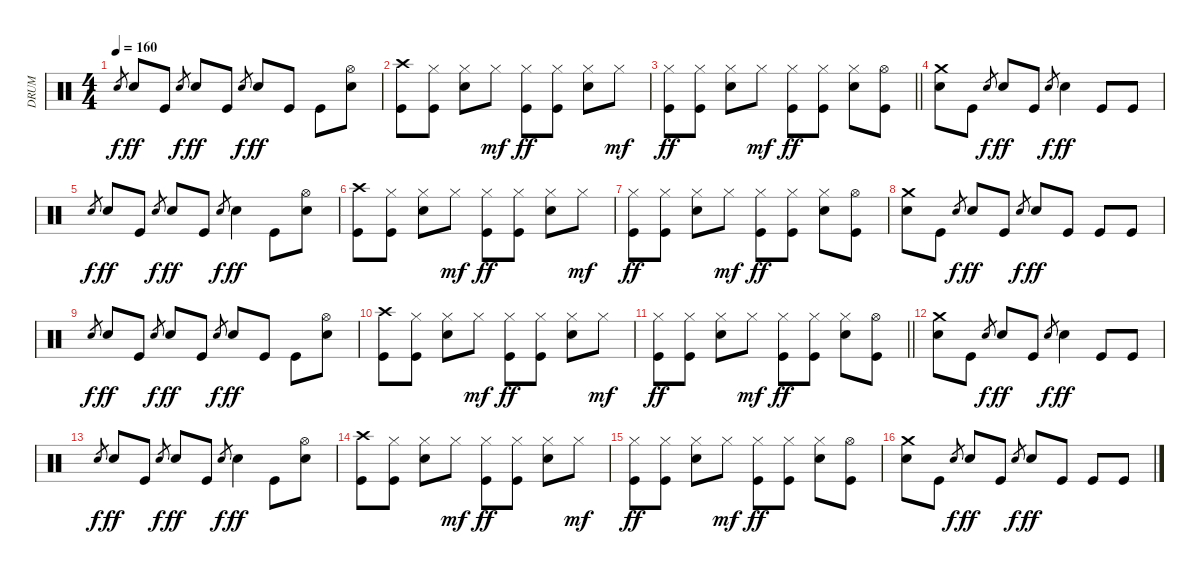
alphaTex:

\track ("DRUM" "DRUM") {instrument percussion}
\staff {score}
\articulation defaults
\ts (4 4)
\tempo 160
\clef neutral
\ks c "Electric Snare (hit)".8{gr dy f} "Electric Snare (hit)".8{dy ff} "Kick (hit)".8 "Electric Snare (hit)".8{gr dy f} "Electric Snare (hit)".8{dy ff} "Kick (hit)".8 "Electric Snare (hit)".8{gr dy f} "Electric Snare (hit)".8{dy ff} "Kick (hit)".8 "Kick (hit)".8
("Hi-Hat (open)" "Electric Snare (hit)").8 |
("Crash high (hit)" "Kick (hit)").8 ("Hi-Hat (closed)" "Kick (hit)").8 ("Hi-Hat (closed)" "Electric Snare (hit)").8 "Hi-Hat (closed)".8{dy mf} ("Hi-Hat (closed)" "Kick (hit)").8{dy ff} ("Hi-Hat (closed)" "Kick (hit)").8 ("Hi-Hat (closed)" "Electric Snare (hit)").8 "Hi-Hat (closed)".8{dy mf} |
\barLineRight lightlight
("Hi-Hat (closed)" "Kick (hit)").8{dy ff} ("Hi-Hat (closed)" "Kick (hit)").8 ("Hi-Hat (closed)" "Electric Snare (hit)").8 "Hi-Hat (closed)".8{dy mf} ("Hi-Hat (closed)" "Kick (hit)").8{dy ff} ("Hi-Hat (closed)" "Kick (hit)").8 ("Hi-Hat (closed)" "Electric Snare (hit)").8 ("Hi-Hat (open)" "Kick (hit)").8 |
("Crash medium (hit)" "Electric Snare (hit)").8 "Kick (hit)".8 "Electric Snare (hit)".8{gr dy f} "Electric Snare (hit)".8{dy ff} "Kick (hit)".8 "Electric Snare (hit)".8{gr dy f} "Electric Snare (hit)".4{dy ff} "Kick (hit)".8 "Kick (hit)".8 |
"Electric Snare (hit)".8{gr dy f} "Electric Snare (hit)".8{dy ff} "Kick (hit)".8 "Electric Snare (hit)".8{gr dy f} "Electric Snare (hit)".8{dy ff} "Kick (hit)".8 "Electric Snare (hit)".8{gr dy f} "Electric Snare (hit)".4{dy ff} "Kick (hit)".8 ("Hi-Hat (open)" "Electric Snare (hit)").8 |
("Crash high (hit)" "Kick (hit)").8 ("Hi-Hat (closed)" "Kick (hit)").8 ("Hi-Hat (closed)" "Electric Snare (hit)").8 "Hi-Hat (closed)".8{dy mf} ("Hi-Hat (closed)" "Kick (hit)").8{dy ff} ("Hi-Hat (closed)" "Kick (hit)").8 ("Hi-Hat (closed)" "Electric Snare (hit)").8 "Hi-Hat (closed)".8{dy mf} |
("Hi-Hat (closed)" "Kick (hit)").8{dy ff} ("Hi-Hat (closed)" "Kick (hit)").8 ("Hi-Hat (closed)" "Electric Snare (hit)").8 "Hi-Hat (closed)".8{dy mf} ("Hi-Hat (closed)" "Kick (hit)").8{dy ff} ("Hi-Hat (closed)" "Kick (hit)").8 ("Hi-Hat (closed)" "Electric Snare (hit)").8 ("Hi-Hat (open)" "Kick (hit)").8 |
("Crash medium (hit)" "Electric Snare (hit)").8 "Kick (hit)".8 "Electric Snare (hit)".8{gr dy f} "Electric Snare (hit)".8{dy ff} "Kick (hit)".8 "Electric Snare (hit)".8{gr dy f} "Electric Snare (hit)".8{dy ff} "Kick (hit)".8 "Kick (hit)".8 "Kick (hit)".8 |
"Electric Snare (hit)".8{gr dy f} "Electric Snare (hit)".8{dy ff} "Kick (hit)".8 "Electric Snare (hit)".8{gr dy f} "Electric Snare (hit)".8{dy ff} "Kick (hit)".8 "Electric Snare (hit)".8{gr dy f} "Electric Snare (hit)".8{dy ff} "Kick (hit)".8 "Kick (hit)".8 ("Hi-Hat (open)" "Electric Snare (hit)").8 |
("Crash high (hit)" "Kick (hit)").8 ("Hi-Hat (closed)" "Kick (hit)").8 ("Hi-Hat (closed)" "Electric Snare (hit)").8 "Hi-Hat (closed)".8{dy mf} ("Hi-Hat (closed)" "Kick (hit)").8{dy ff} ("Hi-Hat (closed)" "Kick (hit)").8 ("Hi-Hat (closed)" "Electric Snare (hit)").8 "Hi-Hat (closed)".8{dy mf} |
\barLineRight lightlight
("Hi-Hat (closed)" "Kick (hit)").8{dy ff} ("Hi-Hat (closed)" "Kick (hit)").8 ("Hi-Hat (closed)" "Electric Snare (hit)").8 "Hi-Hat (closed)".8{dy mf} ("Hi-Hat (closed)" "Kick (hit)").8{dy ff} ("Hi-Hat (closed)" "Kick (hit)").8 ("Hi-Hat (closed)" "Electric Snare (hit)").8 ("Hi-Hat (open)" "Kick (hit)").8 |
("Crash medium (hit)" "Electric Snare (hit)").8 "Kick (hit)".8 "Electric Snare (hit)".8{gr dy f} "Electric Snare (hit)".8{dy ff} "Kick (hit)".8 "Electric Snare (hit)".8{gr dy f} "Electric Snare (hit)".4{dy ff} "Kick (hit)".8 "Kick (hit)".8 |
"Electric Snare (hit)".8{gr dy f} "Electric Snare (hit)".8{dy ff} "Kick (hit)".8 "Electric Snare (hit)".8{gr dy f} "Electric Snare (hit)".8{dy ff} "Kick (hit)".8 "Electric Snare (hit)".8{gr dy f} "Electric Snare (hit)".4{dy ff} "Kick (hit)".8 ("Hi-Hat (open)" "Electric Snare (hit)").8 |
("Crash high (hit)" "Kick (hit)").8 ("Hi-Hat (closed)" "Kick (hit)").8 ("Hi-Hat (closed)" "Electric Snare (hit)").8 "Hi-Hat (closed)".8{dy mf} ("Hi-Hat (closed)" "Kick (hit)").8{dy ff} ("Hi-Hat (closed)" "Kick (hit)").8 ("Hi-Hat (closed)" "Electric Snare (hit)").8 "Hi-Hat (closed)".8{dy mf} |
("Hi-Hat (closed)" "Kick (hit)").8{dy ff} ("Hi-Hat (closed)" "Kick (hit)").8 ("Hi-Hat (closed)" "Electric Snare (hit)").8 "Hi-Hat (closed)".8{dy mf} ("Hi-Hat (closed)" "Kick (hit)").8{dy ff} ("Hi-Hat (closed)" "Kick (hit)").8 ("Hi-Hat (closed)" "Electric Snare (hit)").8 ("Hi-Hat (open)" "Kick (hit)").8 |
("Crash medium (hit)" "Electric Snare (hit)").8 "Kick (hit)".8 "Electric Snare (hit)".8{gr dy f} "Electric Snare (hit)".8{dy ff} "Kick (hit)".8 "Electric Snare (hit)".8{gr dy f} "Electric Snare (hit)".8{dy ff} "Kick (hit)".8 "Kick (hit)".8 "Kick (hit)".8
